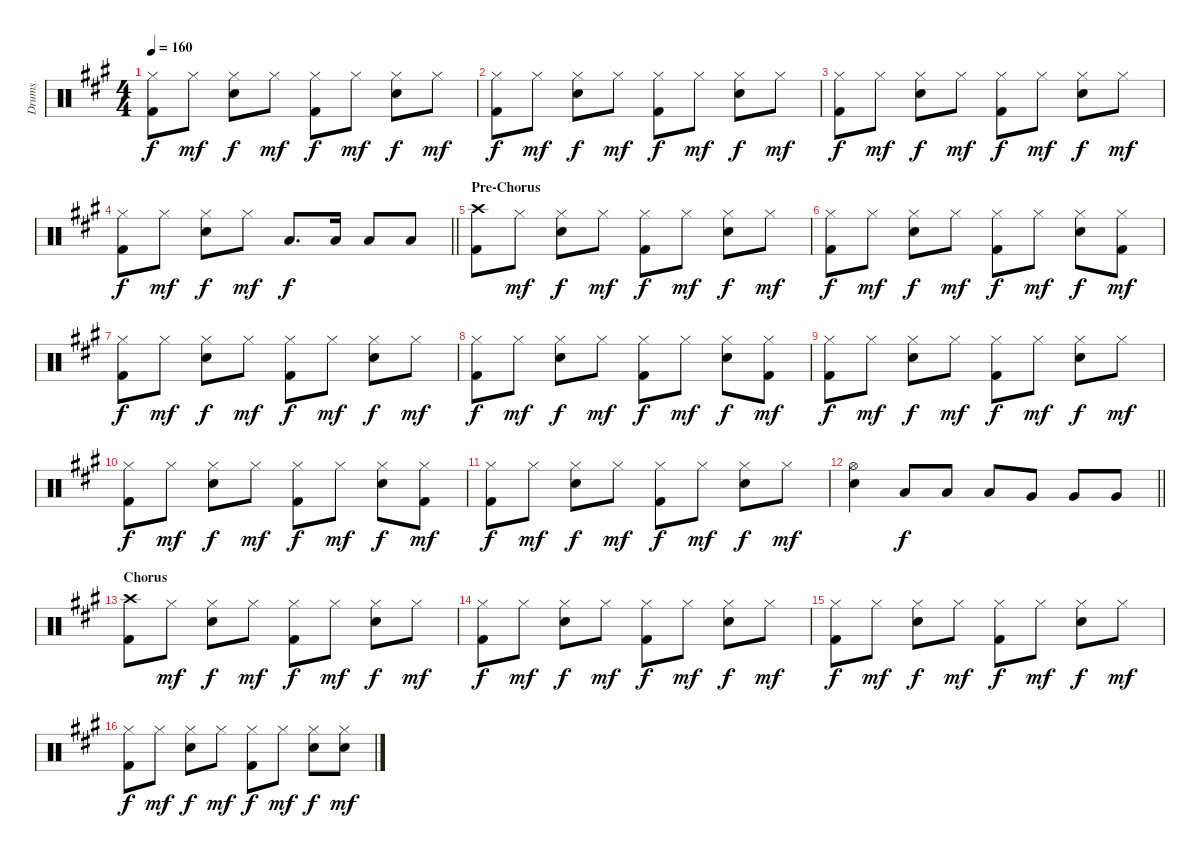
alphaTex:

\track ("Drums" "Drums") {instrument percussion}
\staff {score}
\articulation defaults
\ts (4 4)
\tempo 160
\clef neutral
\ks a
("Hi-Hat (closed)" "Kick (hit) 2").8{dy f} "Hi-Hat (closed)".8{dy mf} ("Hi-Hat (closed)" "Electric Snare (hit)").8{dy f} "Hi-Hat (closed)".8{dy mf} ("Hi-Hat (closed)" "Kick (hit) 2").8{dy f} "Hi-Hat (closed)".8{dy mf} ("Hi-Hat (closed)" "Electric Snare (hit)").8{dy f} "Hi-Hat (closed)".8{dy mf} |
("Hi-Hat (closed)" "Kick (hit) 2").8{dy f} "Hi-Hat (closed)".8{dy mf} ("Hi-Hat (closed)" "Electric Snare (hit)").8{dy f} "Hi-Hat (closed)".8{dy mf} ("Hi-Hat (closed)" "Kick (hit) 2").8{dy f} "Hi-Hat (closed)".8{dy mf} ("Hi-Hat (closed)" "Electric Snare (hit)").8{dy f} "Hi-Hat (closed)".8{dy mf} |
("Hi-Hat (closed)" "Kick (hit) 2").8{dy f} "Hi-Hat (closed)".8{dy mf} ("Hi-Hat (closed)" "Electric Snare (hit)").8{dy f} "Hi-Hat (closed)".8{dy mf} ("Hi-Hat (closed)" "Kick (hit) 2").8{dy f} "Hi-Hat (closed)".8{dy mf} ("Hi-Hat (closed)" "Electric Snare (hit)").8{dy f} "Hi-Hat (closed)".8{dy mf} |
\barLineRight lightlight
("Hi-Hat (closed)" "Kick (hit) 2").8{dy f} "Hi-Hat (closed)".8{dy mf} ("Hi-Hat (closed)" "Electric Snare (hit)").8{dy f} "Hi-Hat (closed)".8{dy mf} "Low Tom (hit)".8{d dy f} "Low Tom (hit)".16 "Low Tom (hit)".8 "Low Tom (hit)".8 |
\section ("" "Pre-Chorus")
("Crash high (hit)" "Kick (hit) 2").8 "Hi-Hat (closed)".8{dy mf} ("Hi-Hat (closed)" "Electric Snare (hit)").8{dy f} "Hi-Hat (closed)".8{dy mf} ("Hi-Hat (closed)" "Kick (hit) 2").8{dy f} "Hi-Hat (closed)".8{dy mf} ("Hi-Hat (closed)" "Electric Snare (hit)").8{dy f} "Hi-Hat (closed)".8{dy mf} |
("Hi-Hat (closed)" "Kick (hit) 2").8{dy f} "Hi-Hat (closed)".8{dy mf} ("Hi-Hat (closed)" "Electric Snare (hit)").8{dy f} "Hi-Hat (closed)".8{dy mf} ("Hi-Hat (closed)" "Kick (hit) 2").8{dy f} "Hi-Hat (closed)".8{dy mf} ("Hi-Hat (closed)" "Electric Snare (hit)").8{dy f} ("Hi-Hat (closed)" "Kick (hit) 2").8{dy mf} |
("Hi-Hat (closed)" "Kick (hit) 2").8{dy f} "Hi-Hat (closed)".8{dy mf} ("Hi-Hat (closed)" "Electric Snare (hit)").8{dy f} "Hi-Hat (closed)".8{dy mf} ("Hi-Hat (closed)" "Kick (hit) 2").8{dy f} "Hi-Hat (closed)".8{dy mf} ("Hi-Hat (closed)" "Electric Snare (hit)").8{dy f} "Hi-Hat (closed)".8{dy mf} |
("Hi-Hat (closed)" "Kick (hit) 2").8{dy f} "Hi-Hat (closed)".8{dy mf} ("Hi-Hat (closed)" "Electric Snare (hit)").8{dy f} "Hi-Hat (closed)".8{dy mf} ("Hi-Hat (closed)" "Kick (hit) 2").8{dy f} "Hi-Hat (closed)".8{dy mf} ("Hi-Hat (closed)" "Electric Snare (hit)").8{dy f} ("Hi-Hat (closed)" "Kick (hit) 2").8{dy mf} |
("Hi-Hat (closed)" "Kick (hit) 2").8{dy f} "Hi-Hat (closed)".8{dy mf} ("Hi-Hat (closed)" "Electric Snare (hit)").8{dy f} "Hi-Hat (closed)".8{dy mf} ("Hi-Hat (closed)" "Kick (hit) 2").8{dy f} "Hi-Hat (closed)".8{dy mf} ("Hi-Hat (closed)" "Electric Snare (hit)").8{dy f} "Hi-Hat (closed)".8{dy mf} |
("Hi-Hat (closed)" "Kick (hit) 2").8{dy f} "Hi-Hat (closed)".8{dy mf} ("Hi-Hat (closed)" "Electric Snare (hit)").8{dy f} "Hi-Hat (closed)".8{dy mf} ("Hi-Hat (closed)" "Kick (hit) 2").8{dy f} "Hi-Hat (closed)".8{dy mf} ("Hi-Hat (closed)" "Electric Snare (hit)").8{dy f} ("Hi-Hat (closed)" "Kick (hit) 2").8{dy mf} |
("Hi-Hat (closed)" "Kick (hit) 2").8{dy f} "Hi-Hat (closed)".8{dy mf} ("Hi-Hat (closed)" "Electric Snare (hit)").8{dy f} "Hi-Hat (closed)".8{dy mf} ("Hi-Hat (closed)" "Kick (hit) 2").8{dy f} "Hi-Hat (closed)".8{dy mf} ("Hi-Hat (closed)" "Electric Snare (hit)").8{dy f} "Hi-Hat (closed)".8{dy mf} |
\barLineRight lightlight
("Hi-Hat (open)" "Electric Snare (hit)").4 "Low Tom (hit)".8{dy f} "Low Tom (hit)".8 "Low Tom (hit)".8 "Very Low Tom (hit)".8 "Very Low Tom (hit)".8 "Very Low Tom (hit)".8 |
\section ("" "Chorus")
("Crash high (hit)" "Kick (hit) 2").8 "Hi-Hat (closed)".8{dy mf} ("Hi-Hat (closed)" "Electric Snare (hit)").8{dy f} "Hi-Hat (closed)".8{dy mf} ("Hi-Hat (closed)" "Kick (hit) 2").8{dy f} "Hi-Hat (closed)".8{dy mf} ("Hi-Hat (closed)" "Electric Snare (hit)").8{dy f} "Hi-Hat (closed)".8{dy mf} |
("Hi-Hat (closed)" "Kick (hit) 2").8{dy f} "Hi-Hat (closed)".8{dy mf} ("Hi-Hat (closed)" "Electric Snare (hit)").8{dy f} "Hi-Hat (closed)".8{dy mf} ("Hi-Hat (closed)" "Kick (hit) 2").8{dy f} "Hi-Hat (closed)".8{dy mf} ("Hi-Hat (closed)" "Electric Snare (hit)").8{dy f} "Hi-Hat (closed)".8{dy mf} |
("Hi-Hat (closed)" "Kick (hit) 2").8{dy f} "Hi-Hat (closed)".8{dy mf} ("Hi-Hat (closed)" "Electric Snare (hit)").8{dy f} "Hi-Hat (closed)".8{dy mf} ("Hi-Hat (closed)" "Kick (hit) 2").8{dy f} "Hi-Hat (closed)".8{dy mf} ("Hi-Hat (closed)" "Electric Snare (hit)").8{dy f} "Hi-Hat (closed)".8{dy mf} |
("Hi-Hat (closed)" "Kick (hit) 2").8{dy f} "Hi-Hat (closed)".8{dy mf} ("Hi-Hat (closed)" "Electric Snare (hit)").8{dy f} "Hi-Hat (closed)".8{dy mf} ("Hi-Hat (closed)" "Kick (hit) 2").8{dy f} "Hi-Hat (closed)".8{dy mf} ("Hi-Hat (closed)" "Electric Snare (hit)").8{dy f} ("Hi-Hat (closed)" "Electric Snare (hit)").8{dy mf}
